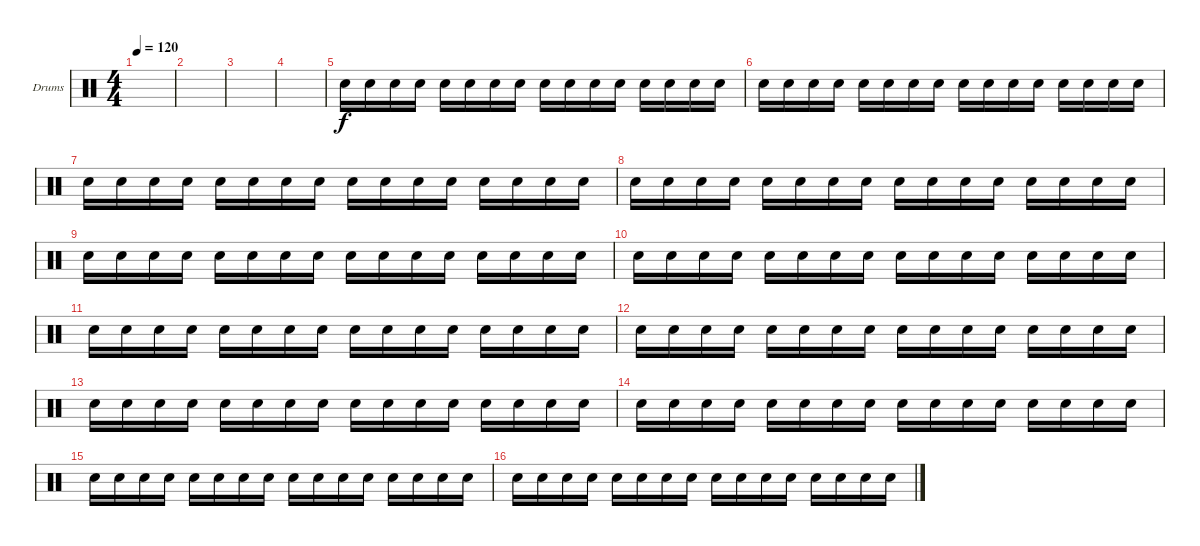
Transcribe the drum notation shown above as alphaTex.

\defaultSystemsLayout 4
\bracketExtendMode groupsimilarinstruments
\firstSystemTrackNameOrientation horizontal
\otherSystemsTrackNameOrientation horizontal
\track ("Drumkit" "Drums") {instrument percussion}
\staff {score}
\articulation defaults
\ts (4 4)
\tempo 120
\clef neutral
\ks c
|
|
|
|
"Snare (hit) 2".16 "Snare (hit) 2".16 "Snare (hit) 2".16 "Snare (hit) 2".16 "Snare (hit) 2".16 "Snare (hit) 2".16 "Snare (hit) 2".16 "Snare (hit) 2".16 "Snare (hit) 2".16 "Snare (hit) 2".16 "Snare (hit) 2".16 "Snare (hit) 2".16 "Snare (hit) 2".16 "Snare (hit) 2".16 "Snare (hit) 2".16 "Snare (hit) 2".16 |
"Snare (hit) 2".16 "Snare (hit) 2".16 "Snare (hit) 2".16 "Snare (hit) 2".16 "Snare (hit) 2".16 "Snare (hit) 2".16 "Snare (hit) 2".16 "Snare (hit) 2".16 "Snare (hit) 2".16 "Snare (hit) 2".16 "Snare (hit) 2".16 "Snare (hit) 2".16 "Snare (hit) 2".16 "Snare (hit) 2".16 "Snare (hit) 2".16 "Snare (hit) 2".16 |
"Snare (hit) 2".16 "Snare (hit) 2".16 "Snare (hit) 2".16 "Snare (hit) 2".16 "Snare (hit) 2".16 "Snare (hit) 2".16 "Snare (hit) 2".16 "Snare (hit) 2".16 "Snare (hit) 2".16 "Snare (hit) 2".16 "Snare (hit) 2".16 "Snare (hit) 2".16 "Snare (hit) 2".16 "Snare (hit) 2".16 "Snare (hit) 2".16 "Snare (hit) 2".16 |
"Snare (hit) 2".16 "Snare (hit) 2".16 "Snare (hit) 2".16 "Snare (hit) 2".16 "Snare (hit) 2".16 "Snare (hit) 2".16 "Snare (hit) 2".16 "Snare (hit) 2".16 "Snare (hit) 2".16 "Snare (hit) 2".16 "Snare (hit) 2".16 "Snare (hit) 2".16 "Snare (hit) 2".16 "Snare (hit) 2".16 "Snare (hit) 2".16 "Snare (hit) 2".16 |
"Snare (hit) 2".16 "Snare (hit) 2".16 "Snare (hit) 2".16 "Snare (hit) 2".16 "Snare (hit) 2".16 "Snare (hit) 2".16 "Snare (hit) 2".16 "Snare (hit) 2".16 "Snare (hit) 2".16 "Snare (hit) 2".16 "Snare (hit) 2".16 "Snare (hit) 2".16 "Snare (hit) 2".16 "Snare (hit) 2".16 "Snare (hit) 2".16 "Snare (hit) 2".16 |
"Snare (hit) 2".16 "Snare (hit) 2".16 "Snare (hit) 2".16 "Snare (hit) 2".16 "Snare (hit) 2".16 "Snare (hit) 2".16 "Snare (hit) 2".16 "Snare (hit) 2".16 "Snare (hit) 2".16 "Snare (hit) 2".16 "Snare (hit) 2".16 "Snare (hit) 2".16 "Snare (hit) 2".16 "Snare (hit) 2".16 "Snare (hit) 2".16 "Snare (hit) 2".16 |
"Snare (hit) 2".16 "Snare (hit) 2".16 "Snare (hit) 2".16 "Snare (hit) 2".16 "Snare (hit) 2".16 "Snare (hit) 2".16 "Snare (hit) 2".16 "Snare (hit) 2".16 "Snare (hit) 2".16 "Snare (hit) 2".16 "Snare (hit) 2".16 "Snare (hit) 2".16 "Snare (hit) 2".16 "Snare (hit) 2".16 "Snare (hit) 2".16 "Snare (hit) 2".16 |
"Snare (hit) 2".16 "Snare (hit) 2".16 "Snare (hit) 2".16 "Snare (hit) 2".16 "Snare (hit) 2".16 "Snare (hit) 2".16 "Snare (hit) 2".16 "Snare (hit) 2".16 "Snare (hit) 2".16 "Snare (hit) 2".16 "Snare (hit) 2".16 "Snare (hit) 2".16 "Snare (hit) 2".16 "Snare (hit) 2".16 "Snare (hit) 2".16 "Snare (hit) 2".16 |
"Snare (hit) 2".16 "Snare (hit) 2".16 "Snare (hit) 2".16 "Snare (hit) 2".16 "Snare (hit) 2".16 "Snare (hit) 2".16 "Snare (hit) 2".16 "Snare (hit) 2".16 "Snare (hit) 2".16 "Snare (hit) 2".16 "Snare (hit) 2".16 "Snare (hit) 2".16 "Snare (hit) 2".16 "Snare (hit) 2".16 "Snare (hit) 2".16 "Snare (hit) 2".16 |
"Snare (hit) 2".16 "Snare (hit) 2".16 "Snare (hit) 2".16 "Snare (hit) 2".16 "Snare (hit) 2".16 "Snare (hit) 2".16 "Snare (hit) 2".16 "Snare (hit) 2".16 "Snare (hit) 2".16 "Snare (hit) 2".16 "Snare (hit) 2".16 "Snare (hit) 2".16 "Snare (hit) 2".16 "Snare (hit) 2".16 "Snare (hit) 2".16 "Snare (hit) 2".16 |
"Snare (hit) 2".16 "Snare (hit) 2".16 "Snare (hit) 2".16 "Snare (hit) 2".16 "Snare (hit) 2".16 "Snare (hit) 2".16 "Snare (hit) 2".16 "Snare (hit) 2".16 "Snare (hit) 2".16 "Snare (hit) 2".16 "Snare (hit) 2".16 "Snare (hit) 2".16 "Snare (hit) 2".16 "Snare (hit) 2".16 "Snare (hit) 2".16 "Snare (hit) 2".16 |
"Snare (hit) 2".16 "Snare (hit) 2".16 "Snare (hit) 2".16 "Snare (hit) 2".16 "Snare (hit) 2".16 "Snare (hit) 2".16 "Snare (hit) 2".16 "Snare (hit) 2".16 "Snare (hit) 2".16 "Snare (hit) 2".16 "Snare (hit) 2".16 "Snare (hit) 2".16 "Snare (hit) 2".16 "Snare (hit) 2".16 "Snare (hit) 2".16 "Snare (hit) 2".16
